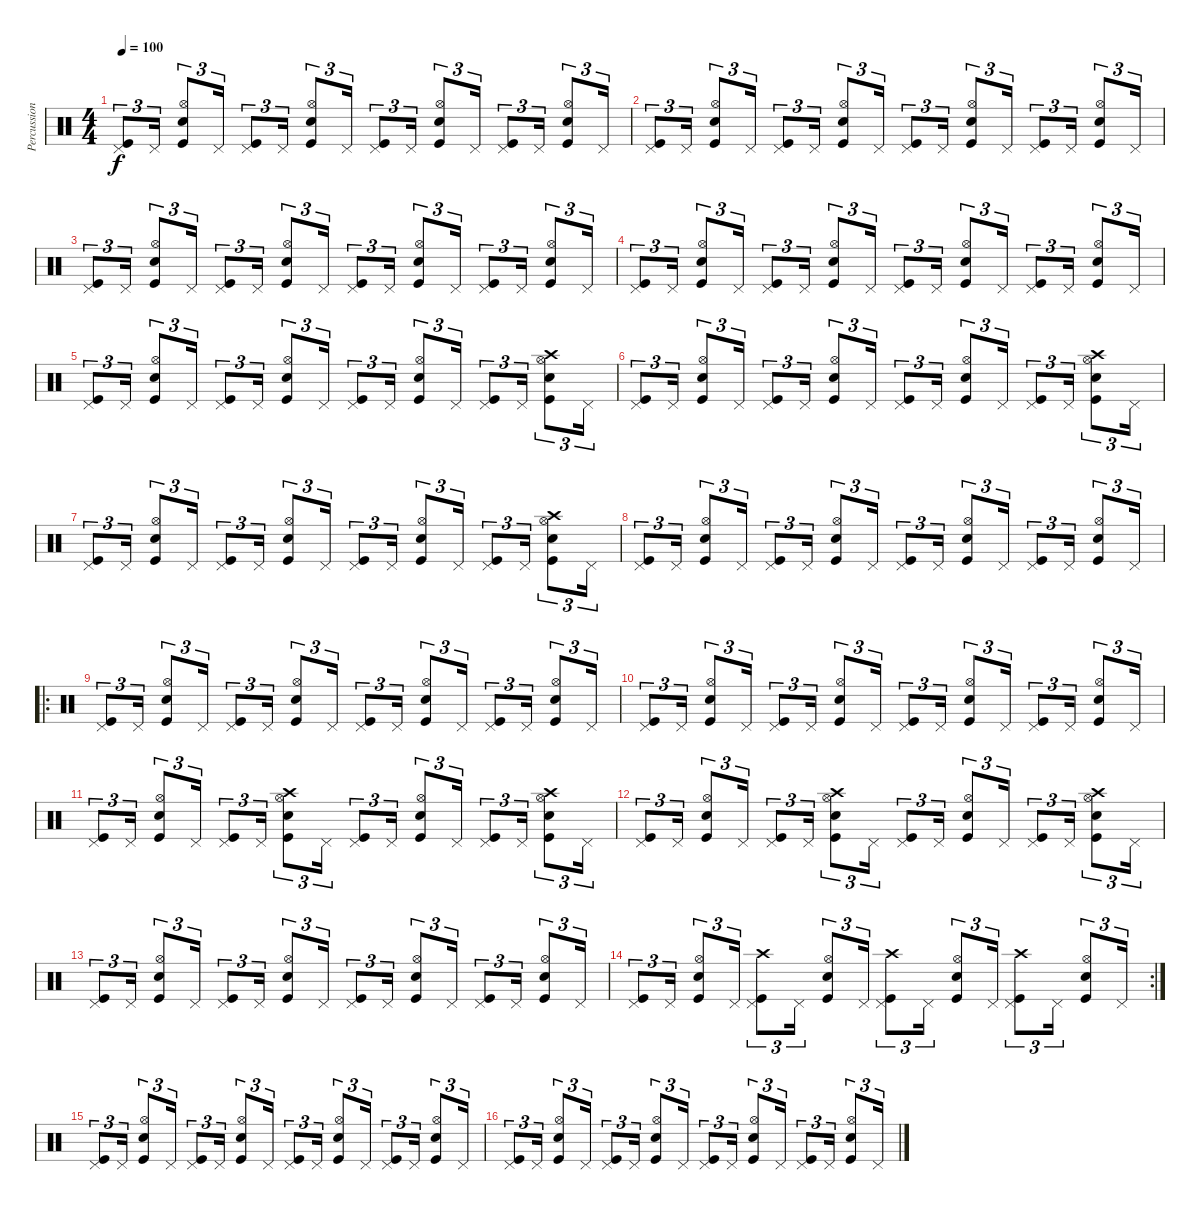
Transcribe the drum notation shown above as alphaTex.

\track ("Percussion" "Percussion") {instrument percussion}
\staff {score}
\articulation defaults
\ts (4 4)
\tempo 100
\clef neutral
\ks c
("Pedal Hi-Hat (hit)" "Kick (hit)").8{tu (3 2) dy f} "Pedal Hi-Hat (hit)".16{tu (3 2)} ("Hi-Hat (open)" "Electric Snare (hit)" "Kick (hit)").8{tu (3 2)} "Pedal Hi-Hat (hit)".16{tu (3 2)} ("Pedal Hi-Hat (hit)" "Kick (hit)").8{tu (3 2)} "Pedal Hi-Hat (hit)".16{tu (3 2)} ("Hi-Hat (open)" "Electric Snare (hit)" "Kick (hit)").8{tu (3 2)} "Pedal Hi-Hat (hit)".16{tu (3 2)} ("Pedal Hi-Hat (hit)" "Kick (hit)").8{tu (3 2)} "Pedal Hi-Hat (hit)".16{tu (3 2)} ("Hi-Hat (open)" "Electric Snare (hit)" "Kick (hit)").8{tu (3 2)} "Pedal Hi-Hat (hit)".16{tu (3 2)} ("Pedal Hi-Hat (hit)" "Kick (hit)").8{tu (3 2)} "Pedal Hi-Hat (hit)".16{tu (3 2)} ("Hi-Hat (open)" "Electric Snare (hit)" "Kick (hit)").8{tu (3 2)} "Pedal Hi-Hat (hit)".16{tu (3 2)} |
("Pedal Hi-Hat (hit)" "Kick (hit)").8{tu (3 2)} "Pedal Hi-Hat (hit)".16{tu (3 2)} ("Hi-Hat (open)" "Electric Snare (hit)" "Kick (hit)").8{tu (3 2)} "Pedal Hi-Hat (hit)".16{tu (3 2)} ("Pedal Hi-Hat (hit)" "Kick (hit)").8{tu (3 2)} "Pedal Hi-Hat (hit)".16{tu (3 2)} ("Hi-Hat (open)" "Electric Snare (hit)" "Kick (hit)").8{tu (3 2)} "Pedal Hi-Hat (hit)".16{tu (3 2)} ("Pedal Hi-Hat (hit)" "Kick (hit)").8{tu (3 2)} "Pedal Hi-Hat (hit)".16{tu (3 2)} ("Hi-Hat (open)" "Electric Snare (hit)" "Kick (hit)").8{tu (3 2)} "Pedal Hi-Hat (hit)".16{tu (3 2)} ("Pedal Hi-Hat (hit)" "Kick (hit)").8{tu (3 2)} "Pedal Hi-Hat (hit)".16{tu (3 2)} ("Hi-Hat (open)" "Electric Snare (hit)" "Kick (hit)").8{tu (3 2)} "Pedal Hi-Hat (hit)".16{tu (3 2)} |
("Pedal Hi-Hat (hit)" "Kick (hit)").8{tu (3 2)} "Pedal Hi-Hat (hit)".16{tu (3 2)} ("Hi-Hat (open)" "Electric Snare (hit)" "Kick (hit)").8{tu (3 2)} "Pedal Hi-Hat (hit)".16{tu (3 2)} ("Pedal Hi-Hat (hit)" "Kick (hit)").8{tu (3 2)} "Pedal Hi-Hat (hit)".16{tu (3 2)} ("Hi-Hat (open)" "Electric Snare (hit)" "Kick (hit)").8{tu (3 2)} "Pedal Hi-Hat (hit)".16{tu (3 2)} ("Pedal Hi-Hat (hit)" "Kick (hit)").8{tu (3 2)} "Pedal Hi-Hat (hit)".16{tu (3 2)} ("Hi-Hat (open)" "Electric Snare (hit)" "Kick (hit)").8{tu (3 2)} "Pedal Hi-Hat (hit)".16{tu (3 2)} ("Pedal Hi-Hat (hit)" "Kick (hit)").8{tu (3 2)} "Pedal Hi-Hat (hit)".16{tu (3 2)} ("Hi-Hat (open)" "Electric Snare (hit)" "Kick (hit)").8{tu (3 2)} "Pedal Hi-Hat (hit)".16{tu (3 2)} |
("Pedal Hi-Hat (hit)" "Kick (hit)").8{tu (3 2)} "Pedal Hi-Hat (hit)".16{tu (3 2)} ("Hi-Hat (open)" "Electric Snare (hit)" "Kick (hit)").8{tu (3 2)} "Pedal Hi-Hat (hit)".16{tu (3 2)} ("Pedal Hi-Hat (hit)" "Kick (hit)").8{tu (3 2)} "Pedal Hi-Hat (hit)".16{tu (3 2)} ("Hi-Hat (open)" "Electric Snare (hit)" "Kick (hit)").8{tu (3 2)} "Pedal Hi-Hat (hit)".16{tu (3 2)} ("Pedal Hi-Hat (hit)" "Kick (hit)").8{tu (3 2)} "Pedal Hi-Hat (hit)".16{tu (3 2)} ("Hi-Hat (open)" "Electric Snare (hit)" "Kick (hit)").8{tu (3 2)} "Pedal Hi-Hat (hit)".16{tu (3 2)} ("Pedal Hi-Hat (hit)" "Kick (hit)").8{tu (3 2)} "Pedal Hi-Hat (hit)".16{tu (3 2)} ("Hi-Hat (open)" "Electric Snare (hit)" "Kick (hit)").8{tu (3 2)} "Pedal Hi-Hat (hit)".16{tu (3 2)} |
("Pedal Hi-Hat (hit)" "Kick (hit)").8{tu (3 2)} "Pedal Hi-Hat (hit)".16{tu (3 2)} ("Hi-Hat (open)" "Electric Snare (hit)" "Kick (hit)").8{tu (3 2)} "Pedal Hi-Hat (hit)".16{tu (3 2)} ("Pedal Hi-Hat (hit)" "Kick (hit)").8{tu (3 2)} "Pedal Hi-Hat (hit)".16{tu (3 2)} ("Hi-Hat (open)" "Electric Snare (hit)" "Kick (hit)").8{tu (3 2)} "Pedal Hi-Hat (hit)".16{tu (3 2)} ("Pedal Hi-Hat (hit)" "Kick (hit)").8{tu (3 2)} "Pedal Hi-Hat (hit)".16{tu (3 2)} ("Hi-Hat (open)" "Electric Snare (hit)" "Kick (hit)").8{tu (3 2)} "Pedal Hi-Hat (hit)".16{tu (3 2)} ("Pedal Hi-Hat (hit)" "Kick (hit)").8{tu (3 2)} "Pedal Hi-Hat (hit)".16{tu (3 2)} ("Crash high (hit)" "Hi-Hat (open)" "Electric Snare (hit)" "Kick (hit)").8{tu (3 2)} "Pedal Hi-Hat (hit)".16{tu (3 2)} |
("Pedal Hi-Hat (hit)" "Kick (hit)").8{tu (3 2)} "Pedal Hi-Hat (hit)".16{tu (3 2)} ("Hi-Hat (open)" "Electric Snare (hit)" "Kick (hit)").8{tu (3 2)} "Pedal Hi-Hat (hit)".16{tu (3 2)} ("Pedal Hi-Hat (hit)" "Kick (hit)").8{tu (3 2)} "Pedal Hi-Hat (hit)".16{tu (3 2)} ("Hi-Hat (open)" "Electric Snare (hit)" "Kick (hit)").8{tu (3 2)} "Pedal Hi-Hat (hit)".16{tu (3 2)} ("Pedal Hi-Hat (hit)" "Kick (hit)").8{tu (3 2)} "Pedal Hi-Hat (hit)".16{tu (3 2)} ("Hi-Hat (open)" "Electric Snare (hit)" "Kick (hit)").8{tu (3 2)} "Pedal Hi-Hat (hit)".16{tu (3 2)} ("Pedal Hi-Hat (hit)" "Kick (hit)").8{tu (3 2)} "Pedal Hi-Hat (hit)".16{tu (3 2)} ("Crash high (hit)" "Hi-Hat (open)" "Electric Snare (hit)" "Kick (hit)").8{tu (3 2)} "Pedal Hi-Hat (hit)".16{tu (3 2)} |
("Pedal Hi-Hat (hit)" "Kick (hit)").8{tu (3 2)} "Pedal Hi-Hat (hit)".16{tu (3 2)} ("Hi-Hat (open)" "Electric Snare (hit)" "Kick (hit)").8{tu (3 2)} "Pedal Hi-Hat (hit)".16{tu (3 2)} ("Pedal Hi-Hat (hit)" "Kick (hit)").8{tu (3 2)} "Pedal Hi-Hat (hit)".16{tu (3 2)} ("Hi-Hat (open)" "Electric Snare (hit)" "Kick (hit)").8{tu (3 2)} "Pedal Hi-Hat (hit)".16{tu (3 2)} ("Pedal Hi-Hat (hit)" "Kick (hit)").8{tu (3 2)} "Pedal Hi-Hat (hit)".16{tu (3 2)} ("Hi-Hat (open)" "Electric Snare (hit)" "Kick (hit)").8{tu (3 2)} "Pedal Hi-Hat (hit)".16{tu (3 2)} ("Pedal Hi-Hat (hit)" "Kick (hit)").8{tu (3 2)} "Pedal Hi-Hat (hit)".16{tu (3 2)} ("Crash high (hit)" "Hi-Hat (open)" "Electric Snare (hit)" "Kick (hit)").8{tu (3 2)} "Pedal Hi-Hat (hit)".16{tu (3 2)} |
("Pedal Hi-Hat (hit)" "Kick (hit)").8{tu (3 2)} "Pedal Hi-Hat (hit)".16{tu (3 2)} ("Hi-Hat (open)" "Electric Snare (hit)" "Kick (hit)").8{tu (3 2)} "Pedal Hi-Hat (hit)".16{tu (3 2)} ("Pedal Hi-Hat (hit)" "Kick (hit)").8{tu (3 2)} "Pedal Hi-Hat (hit)".16{tu (3 2)} ("Hi-Hat (open)" "Electric Snare (hit)" "Kick (hit)").8{tu (3 2)} "Pedal Hi-Hat (hit)".16{tu (3 2)} ("Pedal Hi-Hat (hit)" "Kick (hit)").8{tu (3 2)} "Pedal Hi-Hat (hit)".16{tu (3 2)} ("Hi-Hat (open)" "Electric Snare (hit)" "Kick (hit)").8{tu (3 2)} "Pedal Hi-Hat (hit)".16{tu (3 2)} ("Pedal Hi-Hat (hit)" "Kick (hit)").8{tu (3 2)} "Pedal Hi-Hat (hit)".16{tu (3 2)} ("Hi-Hat (open)" "Electric Snare (hit)" "Kick (hit)").8{tu (3 2)} "Pedal Hi-Hat (hit)".16{tu (3 2)} |
\ro
("Pedal Hi-Hat (hit)" "Kick (hit)").8{tu (3 2)} "Pedal Hi-Hat (hit)".16{tu (3 2)} ("Hi-Hat (open)" "Electric Snare (hit)" "Kick (hit)").8{tu (3 2)} "Pedal Hi-Hat (hit)".16{tu (3 2)} ("Pedal Hi-Hat (hit)" "Kick (hit)").8{tu (3 2)} "Pedal Hi-Hat (hit)".16{tu (3 2)} ("Hi-Hat (open)" "Electric Snare (hit)" "Kick (hit)").8{tu (3 2)} "Pedal Hi-Hat (hit)".16{tu (3 2)} ("Pedal Hi-Hat (hit)" "Kick (hit)").8{tu (3 2)} "Pedal Hi-Hat (hit)".16{tu (3 2)} ("Hi-Hat (open)" "Electric Snare (hit)" "Kick (hit)").8{tu (3 2)} "Pedal Hi-Hat (hit)".16{tu (3 2)} ("Pedal Hi-Hat (hit)" "Kick (hit)").8{tu (3 2)} "Pedal Hi-Hat (hit)".16{tu (3 2)} ("Hi-Hat (open)" "Electric Snare (hit)" "Kick (hit)").8{tu (3 2)} "Pedal Hi-Hat (hit)".16{tu (3 2)} |
("Pedal Hi-Hat (hit)" "Kick (hit)").8{tu (3 2)} "Pedal Hi-Hat (hit)".16{tu (3 2)} ("Hi-Hat (open)" "Electric Snare (hit)" "Kick (hit)").8{tu (3 2)} "Pedal Hi-Hat (hit)".16{tu (3 2)} ("Pedal Hi-Hat (hit)" "Kick (hit)").8{tu (3 2)} "Pedal Hi-Hat (hit)".16{tu (3 2)} ("Hi-Hat (open)" "Electric Snare (hit)" "Kick (hit)").8{tu (3 2)} "Pedal Hi-Hat (hit)".16{tu (3 2)} ("Pedal Hi-Hat (hit)" "Kick (hit)").8{tu (3 2)} "Pedal Hi-Hat (hit)".16{tu (3 2)} ("Hi-Hat (open)" "Electric Snare (hit)" "Kick (hit)").8{tu (3 2)} "Pedal Hi-Hat (hit)".16{tu (3 2)} ("Pedal Hi-Hat (hit)" "Kick (hit)").8{tu (3 2)} "Pedal Hi-Hat (hit)".16{tu (3 2)} ("Hi-Hat (open)" "Electric Snare (hit)" "Kick (hit)").8{tu (3 2)} "Pedal Hi-Hat (hit)".16{tu (3 2)} |
("Pedal Hi-Hat (hit)" "Kick (hit)").8{tu (3 2)} "Pedal Hi-Hat (hit)".16{tu (3 2)} ("Hi-Hat (open)" "Electric Snare (hit)" "Kick (hit)").8{tu (3 2)} "Pedal Hi-Hat (hit)".16{tu (3 2)} ("Pedal Hi-Hat (hit)" "Kick (hit)").8{tu (3 2)} "Pedal Hi-Hat (hit)".16{tu (3 2)} ("Crash high (hit)" "Hi-Hat (open)" "Electric Snare (hit)" "Kick (hit)").8{tu (3 2)} "Pedal Hi-Hat (hit)".16{tu (3 2)} ("Pedal Hi-Hat (hit)" "Kick (hit)").8{tu (3 2)} "Pedal Hi-Hat (hit)".16{tu (3 2)} ("Hi-Hat (open)" "Electric Snare (hit)" "Kick (hit)").8{tu (3 2)} "Pedal Hi-Hat (hit)".16{tu (3 2)} ("Pedal Hi-Hat (hit)" "Kick (hit)").8{tu (3 2)} "Pedal Hi-Hat (hit)".16{tu (3 2)} ("Crash high (hit)" "Hi-Hat (open)" "Electric Snare (hit)" "Kick (hit)").8{tu (3 2)} "Pedal Hi-Hat (hit)".16{tu (3 2)} |
("Pedal Hi-Hat (hit)" "Kick (hit)").8{tu (3 2)} "Pedal Hi-Hat (hit)".16{tu (3 2)} ("Hi-Hat (open)" "Electric Snare (hit)" "Kick (hit)").8{tu (3 2)} "Pedal Hi-Hat (hit)".16{tu (3 2)} ("Pedal Hi-Hat (hit)" "Kick (hit)").8{tu (3 2)} "Pedal Hi-Hat (hit)".16{tu (3 2)} ("Crash high (hit)" "Hi-Hat (open)" "Electric Snare (hit)" "Kick (hit)").8{tu (3 2)} "Pedal Hi-Hat (hit)".16{tu (3 2)} ("Pedal Hi-Hat (hit)" "Kick (hit)").8{tu (3 2)} "Pedal Hi-Hat (hit)".16{tu (3 2)} ("Hi-Hat (open)" "Electric Snare (hit)" "Kick (hit)").8{tu (3 2)} "Pedal Hi-Hat (hit)".16{tu (3 2)} ("Pedal Hi-Hat (hit)" "Kick (hit)").8{tu (3 2)} "Pedal Hi-Hat (hit)".16{tu (3 2)} ("Crash high (hit)" "Hi-Hat (open)" "Electric Snare (hit)" "Kick (hit)").8{tu (3 2)} "Pedal Hi-Hat (hit)".16{tu (3 2)} |
("Pedal Hi-Hat (hit)" "Kick (hit)").8{tu (3 2)} "Pedal Hi-Hat (hit)".16{tu (3 2)} ("Hi-Hat (open)" "Electric Snare (hit)" "Kick (hit)").8{tu (3 2)} "Pedal Hi-Hat (hit)".16{tu (3 2)} ("Pedal Hi-Hat (hit)" "Kick (hit)").8{tu (3 2)} "Pedal Hi-Hat (hit)".16{tu (3 2)} ("Hi-Hat (open)" "Electric Snare (hit)" "Kick (hit)").8{tu (3 2)} "Pedal Hi-Hat (hit)".16{tu (3 2)} ("Pedal Hi-Hat (hit)" "Kick (hit)").8{tu (3 2)} "Pedal Hi-Hat (hit)".16{tu (3 2)} ("Hi-Hat (open)" "Electric Snare (hit)" "Kick (hit)").8{tu (3 2)} "Pedal Hi-Hat (hit)".16{tu (3 2)} ("Pedal Hi-Hat (hit)" "Kick (hit)").8{tu (3 2)} "Pedal Hi-Hat (hit)".16{tu (3 2)} ("Hi-Hat (open)" "Electric Snare (hit)" "Kick (hit)").8{tu (3 2)} "Pedal Hi-Hat (hit)".16{tu (3 2)} |
\rc 2
("Pedal Hi-Hat (hit)" "Kick (hit)").8{tu (3 2)} "Pedal Hi-Hat (hit)".16{tu (3 2)} ("Hi-Hat (open)" "Electric Snare (hit)" "Kick (hit)").8{tu (3 2)} "Pedal Hi-Hat (hit)".16{tu (3 2)} ("Crash high (hit)" "Pedal Hi-Hat (hit)" "Kick (hit)").8{tu (3 2)} "Pedal Hi-Hat (hit)".16{tu (3 2)} ("Hi-Hat (open)" "Electric Snare (hit)" "Kick (hit)").8{tu (3 2)} "Pedal Hi-Hat (hit)".16{tu (3 2)} ("Crash high (hit)" "Pedal Hi-Hat (hit)" "Kick (hit)").8{tu (3 2)} "Pedal Hi-Hat (hit)".16{tu (3 2)} ("Hi-Hat (open)" "Electric Snare (hit)" "Kick (hit)").8{tu (3 2)} "Pedal Hi-Hat (hit)".16{tu (3 2)} ("Crash high (hit)" "Pedal Hi-Hat (hit)" "Kick (hit)").8{tu (3 2)} "Pedal Hi-Hat (hit)".16{tu (3 2)} ("Hi-Hat (open)" "Electric Snare (hit)" "Kick (hit)").8{tu (3 2)} "Pedal Hi-Hat (hit)".16{tu (3 2)} |
("Pedal Hi-Hat (hit)" "Kick (hit)").8{tu (3 2)} "Pedal Hi-Hat (hit)".16{tu (3 2)} ("Hi-Hat (open)" "Electric Snare (hit)" "Kick (hit)").8{tu (3 2)} "Pedal Hi-Hat (hit)".16{tu (3 2)} ("Pedal Hi-Hat (hit)" "Kick (hit)").8{tu (3 2)} "Pedal Hi-Hat (hit)".16{tu (3 2)} ("Hi-Hat (open)" "Electric Snare (hit)" "Kick (hit)").8{tu (3 2)} "Pedal Hi-Hat (hit)".16{tu (3 2)} ("Pedal Hi-Hat (hit)" "Kick (hit)").8{tu (3 2)} "Pedal Hi-Hat (hit)".16{tu (3 2)} ("Hi-Hat (open)" "Electric Snare (hit)" "Kick (hit)").8{tu (3 2)} "Pedal Hi-Hat (hit)".16{tu (3 2)} ("Pedal Hi-Hat (hit)" "Kick (hit)").8{tu (3 2)} "Pedal Hi-Hat (hit)".16{tu (3 2)} ("Hi-Hat (open)" "Electric Snare (hit)" "Kick (hit)").8{tu (3 2)} "Pedal Hi-Hat (hit)".16{tu (3 2)} |
("Pedal Hi-Hat (hit)" "Kick (hit)").8{tu (3 2)} "Pedal Hi-Hat (hit)".16{tu (3 2)} ("Hi-Hat (open)" "Electric Snare (hit)" "Kick (hit)").8{tu (3 2)} "Pedal Hi-Hat (hit)".16{tu (3 2)} ("Pedal Hi-Hat (hit)" "Kick (hit)").8{tu (3 2)} "Pedal Hi-Hat (hit)".16{tu (3 2)} ("Hi-Hat (open)" "Electric Snare (hit)" "Kick (hit)").8{tu (3 2)} "Pedal Hi-Hat (hit)".16{tu (3 2)} ("Pedal Hi-Hat (hit)" "Kick (hit)").8{tu (3 2)} "Pedal Hi-Hat (hit)".16{tu (3 2)} ("Hi-Hat (open)" "Electric Snare (hit)" "Kick (hit)").8{tu (3 2)} "Pedal Hi-Hat (hit)".16{tu (3 2)} ("Pedal Hi-Hat (hit)" "Kick (hit)").8{tu (3 2)} "Pedal Hi-Hat (hit)".16{tu (3 2)} ("Hi-Hat (open)" "Electric Snare (hit)" "Kick (hit)").8{tu (3 2)} "Pedal Hi-Hat (hit)".16{tu (3 2)}
